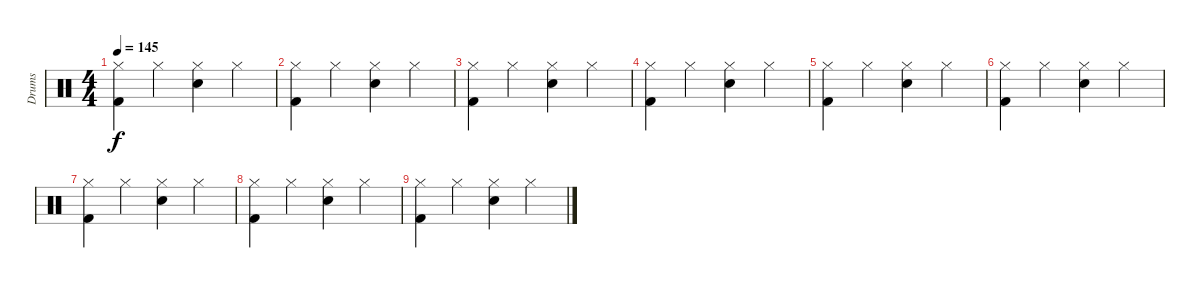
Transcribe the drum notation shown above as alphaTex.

\track ("Drums" "Drums") {instrument percussion}
\staff {score}
\articulation defaults
\ts (4 4)
\tempo 145
\clef neutral
\ks c
("Hi-Hat (closed)" "Kick (hit) 2").4{dy f} "Hi-Hat (closed)".4 ("Hi-Hat (closed)" "Electric Snare (hit)").4 "Hi-Hat (closed)".4 |
("Hi-Hat (closed)" "Kick (hit) 2").4 "Hi-Hat (closed)".4 ("Hi-Hat (closed)" "Electric Snare (hit)").4 "Hi-Hat (closed)".4 |
("Hi-Hat (closed)" "Kick (hit) 2").4 "Hi-Hat (closed)".4 ("Hi-Hat (closed)" "Electric Snare (hit)").4 "Hi-Hat (closed)".4 |
("Hi-Hat (closed)" "Kick (hit) 2").4 "Hi-Hat (closed)".4 ("Hi-Hat (closed)" "Electric Snare (hit)").4 "Hi-Hat (closed)".4 |
("Hi-Hat (closed)" "Kick (hit) 2").4 "Hi-Hat (closed)".4 ("Hi-Hat (closed)" "Electric Snare (hit)").4 "Hi-Hat (closed)".4 |
("Hi-Hat (closed)" "Kick (hit) 2").4 "Hi-Hat (closed)".4 ("Hi-Hat (closed)" "Electric Snare (hit)").4 "Hi-Hat (closed)".4 |
("Hi-Hat (closed)" "Kick (hit) 2").4 "Hi-Hat (closed)".4 ("Hi-Hat (closed)" "Electric Snare (hit)").4 "Hi-Hat (closed)".4 |
("Hi-Hat (closed)" "Kick (hit) 2").4 "Hi-Hat (closed)".4 ("Hi-Hat (closed)" "Electric Snare (hit)").4 "Hi-Hat (closed)".4 |
("Hi-Hat (closed)" "Kick (hit) 2").4 "Hi-Hat (closed)".4 ("Hi-Hat (closed)" "Electric Snare (hit)").4 "Hi-Hat (closed)".4
